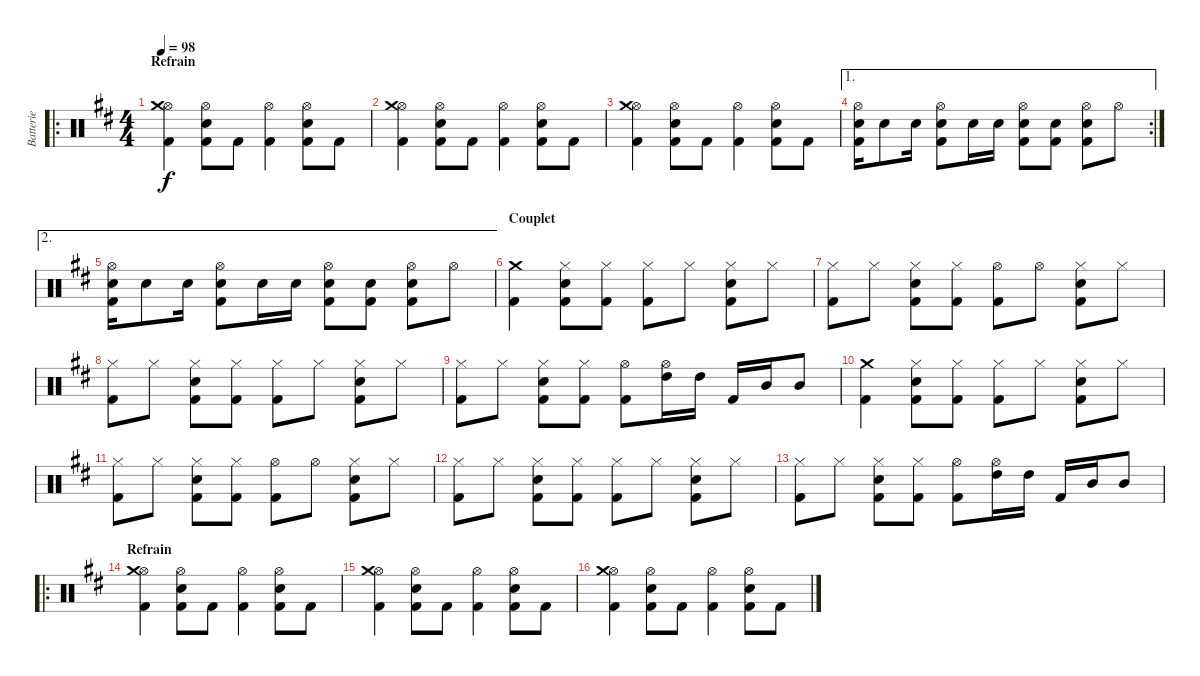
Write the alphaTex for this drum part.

\track ("Batterie" "Batterie") {instrument percussion}
\staff {score}
\articulation defaults
\ro
\ts (4 4)
\section ("" "Refrain")
\tempo 98
\clef neutral
\ks d
("Hi-Hat (open)" "Crash medium (hit)" "Kick (hit) 2").4{dy f} ("Hi-Hat (open)" "Snare (hit) 2" "Kick (hit) 2").8 "Kick (hit) 2".8 ("Hi-Hat (open)" "Kick (hit) 2").4 ("Hi-Hat (open)" "Snare (hit) 2" "Kick (hit) 2").8 "Kick (hit) 2".8 |
("Hi-Hat (open)" "Crash medium (hit)" "Kick (hit) 2").4 ("Hi-Hat (open)" "Snare (hit) 2" "Kick (hit) 2").8 "Kick (hit) 2".8 ("Hi-Hat (open)" "Kick (hit) 2").4 ("Hi-Hat (open)" "Snare (hit) 2" "Kick (hit) 2").8 "Kick (hit) 2".8 |
("Hi-Hat (open)" "Crash medium (hit)" "Kick (hit) 2").4 ("Hi-Hat (open)" "Snare (hit) 2" "Kick (hit) 2").8 "Kick (hit) 2".8 ("Hi-Hat (open)" "Kick (hit) 2").4 ("Hi-Hat (open)" "Snare (hit) 2" "Kick (hit) 2").8 "Kick (hit) 2".8 |
\ae 1
\rc 2
("Hi-Hat (open)" "Snare (hit) 2" "Kick (hit) 2").16 "Snare (hit) 2".8 "Snare (hit) 2".16 ("Hi-Hat (open)" "Snare (hit) 2" "Kick (hit) 2").8 "Snare (hit) 2".16 "Snare (hit) 2".16 ("Hi-Hat (open)" "Snare (hit) 2" "Kick (hit) 2").8 ("Snare (hit) 2" "Kick (hit) 2").8 ("Hi-Hat (open)" "Snare (hit) 2" "Kick (hit) 2").8 "Hi-Hat (open)".8 |
\ae 2
("Hi-Hat (open)" "Snare (hit) 2" "Kick (hit) 2").16 "Snare (hit) 2".8 "Snare (hit) 2".16 ("Hi-Hat (open)" "Snare (hit) 2" "Kick (hit) 2").8 "Snare (hit) 2".16 "Snare (hit) 2".16 ("Hi-Hat (open)" "Snare (hit) 2" "Kick (hit) 2").8 ("Snare (hit) 2" "Kick (hit) 2").8 ("Hi-Hat (open)" "Snare (hit) 2" "Kick (hit) 2").8 "Hi-Hat (open)".8 |
\section ("" "Couplet")
("Crash medium (hit)" "Kick (hit) 2").4 ("Hi-Hat (closed)" "Snare (hit) 2" "Kick (hit) 2").8 ("Hi-Hat (closed)" "Kick (hit) 2").8 ("Hi-Hat (closed)" "Kick (hit) 2").8 "Hi-Hat (closed)".8 ("Hi-Hat (closed)" "Snare (hit) 2" "Kick (hit) 2").8 "Hi-Hat (closed)".8 |
("Hi-Hat (closed)" "Kick (hit) 2").8 "Hi-Hat (closed)".8 ("Hi-Hat (closed)" "Snare (hit) 2" "Kick (hit) 2").8 ("Hi-Hat (closed)" "Kick (hit) 2").8 ("Hi-Hat (open)" "Kick (hit) 2").8 "Hi-Hat (open)".8 ("Hi-Hat (closed)" "Snare (hit) 2" "Kick (hit) 2").8 "Hi-Hat (closed)".8 |
("Hi-Hat (closed)" "Kick (hit) 2").8 "Hi-Hat (closed)".8 ("Hi-Hat (closed)" "Snare (hit) 2" "Kick (hit) 2").8 ("Hi-Hat (closed)" "Kick (hit) 2").8 ("Hi-Hat (closed)" "Kick (hit) 2").8 "Hi-Hat (closed)".8 ("Hi-Hat (closed)" "Snare (hit) 2" "Kick (hit) 2").8 "Hi-Hat (closed)".8 |
("Hi-Hat (closed)" "Kick (hit) 2").8 "Hi-Hat (closed)".8 ("Hi-Hat (closed)" "Snare (hit) 2" "Kick (hit) 2").8 ("Hi-Hat (closed)" "Kick (hit) 2").8 ("Hi-Hat (open)" "Kick (hit) 2").8 ("Hi-Hat (open)" "High Tom (hit)").16 "High Tom (hit)".16 "Kick (hit) 2".16 "Mid Tom (hit)".16 "Mid Tom (hit)".8 |
("Crash medium (hit)" "Kick (hit) 2").4 ("Hi-Hat (closed)" "Snare (hit) 2" "Kick (hit) 2").8 ("Hi-Hat (closed)" "Kick (hit) 2").8 ("Hi-Hat (closed)" "Kick (hit) 2").8 "Hi-Hat (closed)".8 ("Hi-Hat (closed)" "Snare (hit) 2" "Kick (hit) 2").8 "Hi-Hat (closed)".8 |
("Hi-Hat (closed)" "Kick (hit) 2").8 "Hi-Hat (closed)".8 ("Hi-Hat (closed)" "Snare (hit) 2" "Kick (hit) 2").8 ("Hi-Hat (closed)" "Kick (hit) 2").8 ("Hi-Hat (open)" "Kick (hit) 2").8 "Hi-Hat (open)".8 ("Hi-Hat (closed)" "Snare (hit) 2" "Kick (hit) 2").8 "Hi-Hat (closed)".8 |
("Hi-Hat (closed)" "Kick (hit) 2").8 "Hi-Hat (closed)".8 ("Hi-Hat (closed)" "Snare (hit) 2" "Kick (hit) 2").8 ("Hi-Hat (closed)" "Kick (hit) 2").8 ("Hi-Hat (closed)" "Kick (hit) 2").8 "Hi-Hat (closed)".8 ("Hi-Hat (closed)" "Snare (hit) 2" "Kick (hit) 2").8 "Hi-Hat (closed)".8 |
("Hi-Hat (closed)" "Kick (hit) 2").8 "Hi-Hat (closed)".8 ("Hi-Hat (closed)" "Snare (hit) 2" "Kick (hit) 2").8 ("Hi-Hat (closed)" "Kick (hit) 2").8 ("Hi-Hat (open)" "Kick (hit) 2").8 ("Hi-Hat (open)" "High Tom (hit)").16 "High Tom (hit)".16 "Kick (hit) 2".16 "Mid Tom (hit)".16 "Mid Tom (hit)".8 |
\ro
\section ("" "Refrain")
("Hi-Hat (open)" "Crash medium (hit)" "Kick (hit) 2").4 ("Hi-Hat (open)" "Snare (hit) 2" "Kick (hit) 2").8 "Kick (hit) 2".8 ("Hi-Hat (open)" "Kick (hit) 2").4 ("Hi-Hat (open)" "Snare (hit) 2" "Kick (hit) 2").8 "Kick (hit) 2".8 |
("Hi-Hat (open)" "Crash medium (hit)" "Kick (hit) 2").4 ("Hi-Hat (open)" "Snare (hit) 2" "Kick (hit) 2").8 "Kick (hit) 2".8 ("Hi-Hat (open)" "Kick (hit) 2").4 ("Hi-Hat (open)" "Snare (hit) 2" "Kick (hit) 2").8 "Kick (hit) 2".8 |
("Hi-Hat (open)" "Crash medium (hit)" "Kick (hit) 2").4 ("Hi-Hat (open)" "Snare (hit) 2" "Kick (hit) 2").8 "Kick (hit) 2".8 ("Hi-Hat (open)" "Kick (hit) 2").4 ("Hi-Hat (open)" "Snare (hit) 2" "Kick (hit) 2").8 "Kick (hit) 2".8
